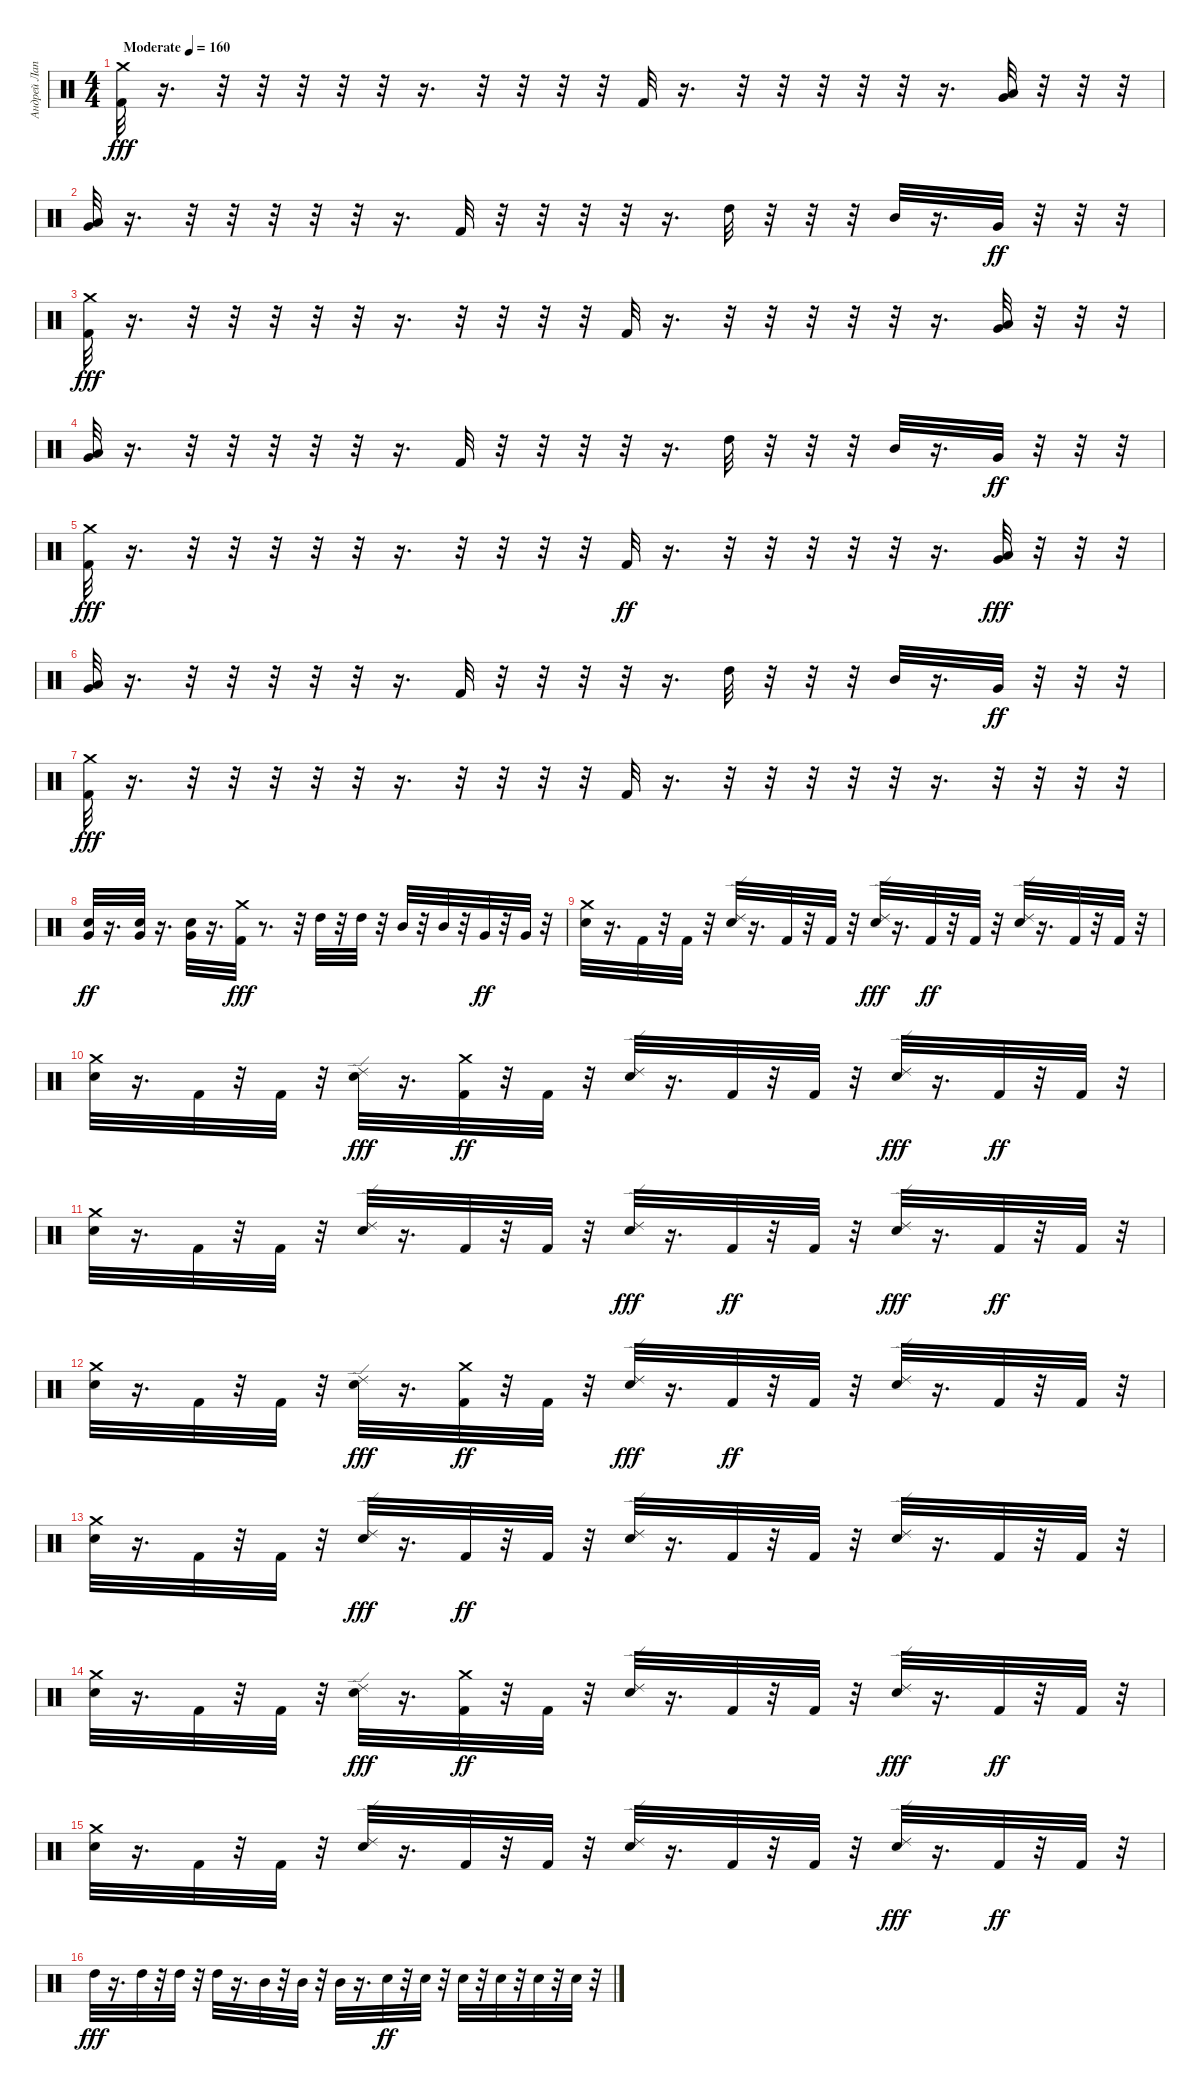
\track ("Андрей Лаптев" "Андрей Лап") {instrument percussion}
\staff {score}
\articulation defaults
\ts (4 4)
\tempo (160 "Moderate")
\clef neutral
\ks c
("Kick (hit) 2" "Crash medium (hit)").32{dy fff} r.16{d} r.32 r.32 r.32 r.32 r.32 r.16{d} r.32 r.32 r.32 r.32 "Kick (hit) 2".32 r.16{d} r.32 r.32 r.32 r.32 r.32 r.16{d} ("Very Low Tom (hit)" "Low Tom (hit)").32 r.32 r.32 r.32 |
("Very Low Tom (hit)" "Low Tom (hit)").32 r.16{d} r.32 r.32 r.32 r.32 r.32 r.16{d} "Kick (hit) 2".32 r.32 r.32 r.32 r.32 r.16{d} "High Tom (hit)".32 r.32 r.32 r.32 "Mid Tom (hit)".32 r.16{d} "Very Low Tom (hit)".32{dy ff} r.32 r.32 r.32 |
("Crash medium (hit)" "Kick (hit) 2").32{dy fff} r.16{d} r.32 r.32 r.32 r.32 r.32 r.16{d} r.32 r.32 r.32 r.32 "Kick (hit) 2".32 r.16{d} r.32 r.32 r.32 r.32 r.32 r.16{d} ("Very Low Tom (hit)" "Low Tom (hit)").32 r.32 r.32 r.32 |
("Very Low Tom (hit)" "Low Tom (hit)").32 r.16{d} r.32 r.32 r.32 r.32 r.32 r.16{d} "Kick (hit) 2".32 r.32 r.32 r.32 r.32 r.16{d} "High Tom (hit)".32 r.32 r.32 r.32 "Mid Tom (hit)".32 r.16{d} "Very Low Tom (hit)".32{dy ff} r.32 r.32 r.32 |
("Kick (hit) 2" "Crash medium (hit)").32{dy fff} r.16{d} r.32 r.32 r.32 r.32 r.32 r.16{d} r.32 r.32 r.32 r.32 "Kick (hit) 2".32{dy ff} r.16{d} r.32 r.32 r.32 r.32 r.32 r.16{d} ("Very Low Tom (hit)" "Low Tom (hit)").32{dy fff} r.32 r.32 r.32 |
("Very Low Tom (hit)" "Low Tom (hit)").32 r.16{d} r.32 r.32 r.32 r.32 r.32 r.16{d} "Kick (hit) 2".32 r.32 r.32 r.32 r.32 r.16{d} "High Tom (hit)".32 r.32 r.32 r.32 "Mid Tom (hit)".32 r.16{d} "Very Low Tom (hit)".32{dy ff} r.32 r.32 r.32 |
("Kick (hit) 2" "Crash medium (hit)").32{dy fff} r.16{d} r.32 r.32 r.32 r.32 r.32 r.16{d} r.32 r.32 r.32 r.32 "Kick (hit) 2".32 r.16{d} r.32 r.32 r.32 r.32 r.32 r.16{d} r.32 r.32 r.32 r.32 |
("Very Low Tom (hit)" "Electric Snare (hit)").32{dy ff} r.16{d} ("Very Low Tom (hit)" "Electric Snare (hit)").32 r.16{d} ("Very Low Tom (hit)" "Electric Snare (hit)").32 r.16{d} ("Kick (hit) 2" "Crash medium (hit)").32{dy fff} r.8{d} r.32 "High Tom (hit)".32 r.32 "High Tom (hit)".32 r.32 "Mid Tom (hit)".32 r.32 "Mid Tom (hit)".32 r.32 "Very Low Tom (hit)".32{dy ff} r.32 "Very Low Tom (hit)".32 r.32 |
("Electric Snare (hit)" "Crash medium (hit)").32 r.16{d} "Kick (hit) 2".32 r.32 "Kick (hit) 2".32 r.32 ("Ride (edge) 2" "Electric Snare (hit)").32 r.16{d} "Kick (hit) 2".32 r.32 "Kick (hit) 2".32 r.32 ("Electric Snare (hit)" "Ride (edge) 2").32{dy fff} r.16{d} "Kick (hit) 2".32{dy ff} r.32 "Kick (hit) 2".32 r.32 ("Ride (edge) 2" "Electric Snare (hit)").32 r.16{d} "Kick (hit) 2".32 r.32 "Kick (hit) 2".32 r.32 |
("Electric Snare (hit)" "Crash medium (hit)").32 r.16{d} "Kick (hit) 2".32 r.32 "Kick (hit) 2".32 r.32 ("Electric Snare (hit)" "Ride (edge) 2").32{dy fff} r.16{d} ("Crash medium (hit)" "Kick (hit) 2").32{dy ff} r.32 "Kick (hit) 2".32 r.32 ("Ride (edge) 2" "Electric Snare (hit)").32 r.16{d} "Kick (hit) 2".32 r.32 "Kick (hit) 2".32 r.32 ("Electric Snare (hit)" "Ride (edge) 2").32{dy fff} r.16{d} "Kick (hit) 2".32{dy ff} r.32 "Kick (hit) 2".32 r.32 |
("Crash medium (hit)" "Electric Snare (hit)").32 r.16{d} "Kick (hit) 2".32 r.32 "Kick (hit) 2".32 r.32 ("Ride (edge) 2" "Electric Snare (hit)").32 r.16{d} "Kick (hit) 2".32 r.32 "Kick (hit) 2".32 r.32 ("Electric Snare (hit)" "Ride (edge) 2").32{dy fff} r.16{d} "Kick (hit) 2".32{dy ff} r.32 "Kick (hit) 2".32 r.32 ("Electric Snare (hit)" "Ride (edge) 2").32{dy fff} r.16{d} "Kick (hit) 2".32{dy ff} r.32 "Kick (hit) 2".32 r.32 |
("Electric Snare (hit)" "Crash medium (hit)").32 r.16{d} "Kick (hit) 2".32 r.32 "Kick (hit) 2".32 r.32 ("Electric Snare (hit)" "Ride (edge) 2").32{dy fff} r.16{d} ("Crash medium (hit)" "Kick (hit) 2").32{dy ff} r.32 "Kick (hit) 2".32 r.32 ("Electric Snare (hit)" "Ride (edge) 2").32{dy fff} r.16{d} "Kick (hit) 2".32{dy ff} r.32 "Kick (hit) 2".32 r.32 ("Ride (edge) 2" "Electric Snare (hit)").32 r.16{d} "Kick (hit) 2".32 r.32 "Kick (hit) 2".32 r.32 |
("Electric Snare (hit)" "Crash medium (hit)").32 r.16{d} "Kick (hit) 2".32 r.32 "Kick (hit) 2".32 r.32 ("Electric Snare (hit)" "Ride (edge) 2").32{dy fff} r.16{d} "Kick (hit) 2".32{dy ff} r.32 "Kick (hit) 2".32 r.32 ("Ride (edge) 2" "Electric Snare (hit)").32 r.16{d} "Kick (hit) 2".32 r.32 "Kick (hit) 2".32 r.32 ("Ride (edge) 2" "Electric Snare (hit)").32 r.16{d} "Kick (hit) 2".32 r.32 "Kick (hit) 2".32 r.32 |
("Crash medium (hit)" "Electric Snare (hit)").32 r.16{d} "Kick (hit) 2".32 r.32 "Kick (hit) 2".32 r.32 ("Electric Snare (hit)" "Ride (edge) 2").32{dy fff} r.16{d} ("Crash medium (hit)" "Kick (hit) 2").32{dy ff} r.32 "Kick (hit) 2".32 r.32 ("Ride (edge) 2" "Electric Snare (hit)").32 r.16{d} "Kick (hit) 2".32 r.32 "Kick (hit) 2".32 r.32 ("Electric Snare (hit)" "Ride (edge) 2").32{dy fff} r.16{d} "Kick (hit) 2".32{dy ff} r.32 "Kick (hit) 2".32 r.32 |
("Crash medium (hit)" "Electric Snare (hit)").32 r.16{d} "Kick (hit) 2".32 r.32 "Kick (hit) 2".32 r.32 ("Ride (edge) 2" "Electric Snare (hit)").32 r.16{d} "Kick (hit) 2".32 r.32 "Kick (hit) 2".32 r.32 ("Ride (edge) 2" "Electric Snare (hit)").32 r.16{d} "Kick (hit) 2".32 r.32 "Kick (hit) 2".32 r.32 ("Electric Snare (hit)" "Ride (edge) 2").32{dy fff} r.16{d} "Kick (hit) 2".32{dy ff} r.32 "Kick (hit) 2".32 r.32 |
"High Tom (hit)".32{dy fff} r.16{d} "High Tom (hit)".32 r.32 "High Tom (hit)".32 r.32 "High Tom (hit)".32 r.16{d} "Mid Tom (hit)".32 r.32 "Mid Tom (hit)".32 r.32 "Mid Tom (hit)".32 r.16{d} "Electric Snare (hit)".32{dy ff} r.32 "Electric Snare (hit)".32 r.32 "Electric Snare (hit)".32 r.32 "Electric Snare (hit)".32 r.32 "Electric Snare (hit)".32 r.32 "Electric Snare (hit)".32 r.32
